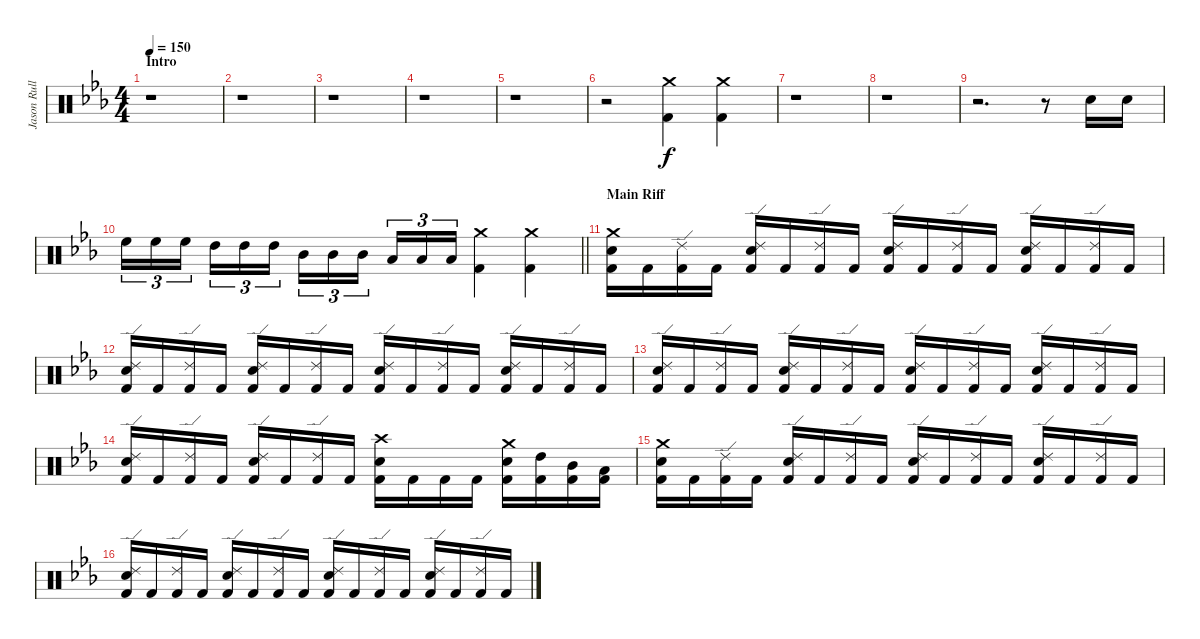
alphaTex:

\track ("Jason Rullo" "Jason Rull") {instrument percussion}
\staff {score}
\articulation defaults
\ts (4 4)
\section ("" "Intro")
\tempo 150
\clef neutral
\ks cminor
r.1{dy f} |
r.1 |
r.1 |
r.1 |
r.1 |
r.2 ("Crash medium (hit)" "Kick (hit) 2").4 ("Crash medium (hit)" "Kick (hit) 2").4 |
r.1 |
r.1 |
r.2{d} r.8 "Electric Snare (hit)".16 "Electric Snare (hit)".16 |
\barLineRight lightlight "High Floor Tom (hit)".16{tu (3 2)} "High Floor Tom (hit)".16{tu (3 2)} "High Floor Tom (hit)".16{tu (3 2) beam splitsecondary} "High Tom (hit)".16{tu (3 2)} "High Tom (hit)".16{tu (3 2)} "High Tom (hit)".16{tu (3 2)} "Mid Tom (hit)".16{tu (3 2)} "Mid Tom (hit)".16{tu (3 2)} "Mid Tom (hit)".16{tu (3 2) beam splitsecondary} "Low Tom (hit)".16{tu (3 2)} "Low Tom (hit)".16{tu (3 2)} "Low Tom (hit)".16{tu (3 2)}
("Crash medium (hit)" "Kick (hit) 2").4 ("Crash medium (hit)" "Kick (hit) 2").4 |
\section ("" "Main Riff")
("Crash medium (hit)" "Electric Snare (hit)" "Kick (hit) 2").16 "Kick (hit) 2".16 ("Ride (edge) 2" "Kick (hit) 2").16 "Kick (hit) 2".16 ("Ride (edge) 2" "Electric Snare (hit)" "Kick (hit) 2").16 "Kick (hit) 2".16 ("Ride (edge) 2" "Kick (hit) 2").16 "Kick (hit) 2".16 ("Ride (edge) 2" "Electric Snare (hit)" "Kick (hit) 2").16 "Kick (hit) 2".16 ("Ride (edge) 2" "Kick (hit) 2").16 "Kick (hit) 2".16 ("Ride (edge) 2" "Electric Snare (hit)" "Kick (hit) 2").16 "Kick (hit) 2".16 ("Ride (edge) 2" "Kick (hit) 2").16 "Kick (hit) 2".16 |
("Ride (edge) 2" "Electric Snare (hit)" "Kick (hit) 2").16 "Kick (hit) 2".16 ("Ride (edge) 2" "Kick (hit) 2").16 "Kick (hit) 2".16 ("Ride (edge) 2" "Electric Snare (hit)" "Kick (hit) 2").16 "Kick (hit) 2".16 ("Ride (edge) 2" "Kick (hit) 2").16 "Kick (hit) 2".16 ("Ride (edge) 2" "Electric Snare (hit)" "Kick (hit) 2").16 "Kick (hit) 2".16 ("Ride (edge) 2" "Kick (hit) 2").16 "Kick (hit) 2".16 ("Ride (edge) 2" "Electric Snare (hit)" "Kick (hit) 2").16 "Kick (hit) 2".16 ("Ride (edge) 2" "Kick (hit) 2").16 "Kick (hit) 2".16 |
("Ride (edge) 2" "Electric Snare (hit)" "Kick (hit) 2").16 "Kick (hit) 2".16 ("Ride (edge) 2" "Kick (hit) 2").16 "Kick (hit) 2".16 ("Ride (edge) 2" "Electric Snare (hit)" "Kick (hit) 2").16 "Kick (hit) 2".16 ("Ride (edge) 2" "Kick (hit) 2").16 "Kick (hit) 2".16 ("Ride (edge) 2" "Electric Snare (hit)" "Kick (hit) 2").16 "Kick (hit) 2".16 ("Ride (edge) 2" "Kick (hit) 2").16 "Kick (hit) 2".16 ("Ride (edge) 2" "Electric Snare (hit)" "Kick (hit) 2").16 "Kick (hit) 2".16 ("Ride (edge) 2" "Kick (hit) 2").16 "Kick (hit) 2".16 |
("Ride (edge) 2" "Electric Snare (hit)" "Kick (hit) 2").16 "Kick (hit) 2".16 ("Ride (edge) 2" "Kick (hit) 2").16 "Kick (hit) 2".16 ("Ride (edge) 2" "Electric Snare (hit)" "Kick (hit) 2").16 "Kick (hit) 2".16 ("Ride (edge) 2" "Kick (hit) 2").16 "Kick (hit) 2".16 ("Crash high (hit)" "Electric Snare (hit)" "Kick (hit) 2").16 "Kick (hit) 2".16 "Kick (hit) 2".16 "Kick (hit) 2".16 ("Crash medium (hit)" "Electric Snare (hit)" "Kick (hit) 2").16 ("High Tom (hit)" "Kick (hit) 2").16 ("Mid Tom (hit)" "Kick (hit) 2").16 ("Low Tom (hit)" "Kick (hit) 2").16 |
("Crash medium (hit)" "Electric Snare (hit)" "Kick (hit) 2").16 "Kick (hit) 2".16 ("Ride (edge) 2" "Kick (hit) 2").16 "Kick (hit) 2".16 ("Ride (edge) 2" "Electric Snare (hit)" "Kick (hit) 2").16 "Kick (hit) 2".16 ("Ride (edge) 2" "Kick (hit) 2").16 "Kick (hit) 2".16 ("Ride (edge) 2" "Electric Snare (hit)" "Kick (hit) 2").16 "Kick (hit) 2".16 ("Ride (edge) 2" "Kick (hit) 2").16 "Kick (hit) 2".16 ("Ride (edge) 2" "Electric Snare (hit)" "Kick (hit) 2").16 "Kick (hit) 2".16 ("Ride (edge) 2" "Kick (hit) 2").16 "Kick (hit) 2".16 |
("Ride (edge) 2" "Electric Snare (hit)" "Kick (hit) 2").16 "Kick (hit) 2".16 ("Ride (edge) 2" "Kick (hit) 2").16 "Kick (hit) 2".16 ("Ride (edge) 2" "Electric Snare (hit)" "Kick (hit) 2").16 "Kick (hit) 2".16 ("Ride (edge) 2" "Kick (hit) 2").16 "Kick (hit) 2".16 ("Ride (edge) 2" "Electric Snare (hit)" "Kick (hit) 2").16 "Kick (hit) 2".16 ("Ride (edge) 2" "Kick (hit) 2").16 "Kick (hit) 2".16 ("Ride (edge) 2" "Electric Snare (hit)" "Kick (hit) 2").16 "Kick (hit) 2".16 ("Ride (edge) 2" "Kick (hit) 2").16 "Kick (hit) 2".16
